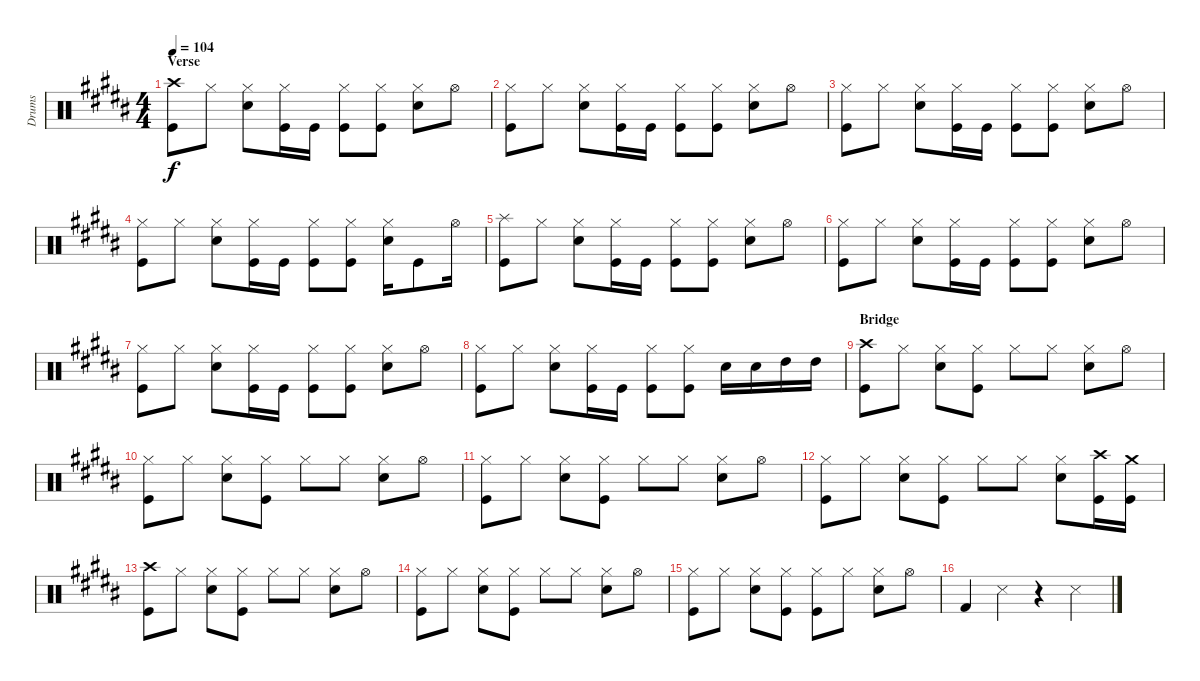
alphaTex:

\track ("Drums" "Drums") {instrument percussion}
\staff {score}
\articulation defaults
\ts (4 4)
\section ("" "Verse")
\tempo 104
\clef neutral
\ks b
("Crash high (hit)" "Kick (hit)").8{dy f} "Hi-Hat (closed)".8 ("Hi-Hat (closed)" "Snare (hit) 2").8 ("Hi-Hat (closed)" "Kick (hit)").16 "Kick (hit)".16 ("Hi-Hat (closed)" "Kick (hit)").8 ("Hi-Hat (closed)" "Kick (hit)").8 ("Hi-Hat (closed)" "Snare (hit) 2").8 "Hi-Hat (open)".8 |
("Hi-Hat (closed)" "Kick (hit)").8 "Hi-Hat (closed)".8 ("Hi-Hat (closed)" "Snare (hit) 2").8 ("Hi-Hat (closed)" "Kick (hit)").16 "Kick (hit)".16 ("Hi-Hat (closed)" "Kick (hit)").8 ("Hi-Hat (closed)" "Kick (hit)").8 ("Hi-Hat (closed)" "Snare (hit) 2").8 "Hi-Hat (open)".8 |
("Hi-Hat (closed)" "Kick (hit)").8 "Hi-Hat (closed)".8 ("Hi-Hat (closed)" "Snare (hit) 2").8 ("Hi-Hat (closed)" "Kick (hit)").16 "Kick (hit)".16 ("Hi-Hat (closed)" "Kick (hit)").8 ("Hi-Hat (closed)" "Kick (hit)").8 ("Hi-Hat (closed)" "Snare (hit) 2").8 "Hi-Hat (open)".8 |
("Hi-Hat (closed)" "Kick (hit)").8 "Hi-Hat (closed)".8 ("Hi-Hat (closed)" "Snare (hit) 2").8 ("Hi-Hat (closed)" "Kick (hit)").16 "Kick (hit)".16 ("Hi-Hat (closed)" "Kick (hit)").8 ("Hi-Hat (closed)" "Kick (hit)").8 ("Hi-Hat (closed)" "Snare (hit) 2").16 "Kick (hit)".8 "Hi-Hat (open)".16 |
("Splash (hit)" "Kick (hit)").8 "Hi-Hat (closed)".8 ("Hi-Hat (closed)" "Snare (hit) 2").8 ("Hi-Hat (closed)" "Kick (hit)").16 "Kick (hit)".16 ("Hi-Hat (closed)" "Kick (hit)").8 ("Hi-Hat (closed)" "Kick (hit)").8 ("Hi-Hat (closed)" "Snare (hit) 2").8 "Hi-Hat (open)".8 |
("Hi-Hat (closed)" "Kick (hit)").8 "Hi-Hat (closed)".8 ("Hi-Hat (closed)" "Snare (hit) 2").8 ("Hi-Hat (closed)" "Kick (hit)").16 "Kick (hit)".16 ("Hi-Hat (closed)" "Kick (hit)").8 ("Hi-Hat (closed)" "Kick (hit)").8 ("Hi-Hat (closed)" "Snare (hit) 2").8 "Hi-Hat (open)".8 |
("Hi-Hat (closed)" "Kick (hit)").8 "Hi-Hat (closed)".8 ("Hi-Hat (closed)" "Snare (hit) 2").8 ("Hi-Hat (closed)" "Kick (hit)").16 "Kick (hit)".16 ("Hi-Hat (closed)" "Kick (hit)").8 ("Hi-Hat (closed)" "Kick (hit)").8 ("Hi-Hat (closed)" "Snare (hit) 2").8 "Hi-Hat (open)".8 |
("Hi-Hat (closed)" "Kick (hit)").8 "Hi-Hat (closed)".8 ("Hi-Hat (closed)" "Snare (hit) 2").8 ("Hi-Hat (closed)" "Kick (hit)").16 "Kick (hit)".16 ("Hi-Hat (closed)" "Kick (hit)").8 ("Hi-Hat (closed)" "Kick (hit)").8 "Snare (hit) 2".16 "Snare (hit) 2".16 "High Tom (hit)".16 "High Tom (hit)".16 |
\section ("" "Bridge")
("Crash high (hit)" "Kick (hit)").8 "Hi-Hat (closed)".8 ("Hi-Hat (closed)" "Snare (hit) 2").8 ("Hi-Hat (closed)" "Kick (hit)").8 "Hi-Hat (closed)".8 "Hi-Hat (closed)".8 ("Hi-Hat (closed)" "Snare (hit) 2").8 "Hi-Hat (open)".8 |
("Hi-Hat (closed)" "Kick (hit)").8 "Hi-Hat (closed)".8 ("Hi-Hat (closed)" "Snare (hit) 2").8 ("Hi-Hat (closed)" "Kick (hit)").8 "Hi-Hat (closed)".8 "Hi-Hat (closed)".8 ("Hi-Hat (closed)" "Snare (hit) 2").8 "Hi-Hat (open)".8 |
("Hi-Hat (closed)" "Kick (hit)").8 "Hi-Hat (closed)".8 ("Hi-Hat (closed)" "Snare (hit) 2").8 ("Hi-Hat (closed)" "Kick (hit)").8 "Hi-Hat (closed)".8 "Hi-Hat (closed)".8 ("Hi-Hat (closed)" "Snare (hit) 2").8 "Hi-Hat (open)".8 |
("Hi-Hat (closed)" "Kick (hit)").8 "Hi-Hat (closed)".8 ("Hi-Hat (closed)" "Snare (hit) 2").8 ("Hi-Hat (closed)" "Kick (hit)").8 "Hi-Hat (closed)".8 "Hi-Hat (closed)".8 ("Hi-Hat (closed)" "Snare (hit) 2").8 ("Crash high (hit)" "Kick (hit)").16 ("Crash medium (hit)" "Kick (hit)").16 |
("Crash high (hit)" "Kick (hit)").8 "Hi-Hat (closed)".8 ("Hi-Hat (closed)" "Snare (hit) 2").8 ("Hi-Hat (closed)" "Kick (hit)").8 "Hi-Hat (closed)".8 "Hi-Hat (closed)".8 ("Hi-Hat (closed)" "Snare (hit) 2").8 "Hi-Hat (open)".8 |
("Hi-Hat (closed)" "Kick (hit)").8 "Hi-Hat (closed)".8 ("Hi-Hat (closed)" "Snare (hit) 2").8 ("Hi-Hat (closed)" "Kick (hit)").8 "Hi-Hat (closed)".8 "Hi-Hat (closed)".8 ("Hi-Hat (closed)" "Snare (hit) 2").8 "Hi-Hat (open)".8 |
("Hi-Hat (closed)" "Kick (hit)").8 "Hi-Hat (closed)".8 ("Hi-Hat (closed)" "Snare (hit) 2").8 ("Hi-Hat (closed)" "Kick (hit)").8 ("Hi-Hat (closed)" "Kick (hit)").8 "Hi-Hat (closed)".8 ("Hi-Hat (closed)" "Snare (hit) 2").8 "Hi-Hat (open)".8 |
"Kick (hit) 2".4 "Snare (side stick) 3".4 r.4 "Snare (side stick) 3".4
